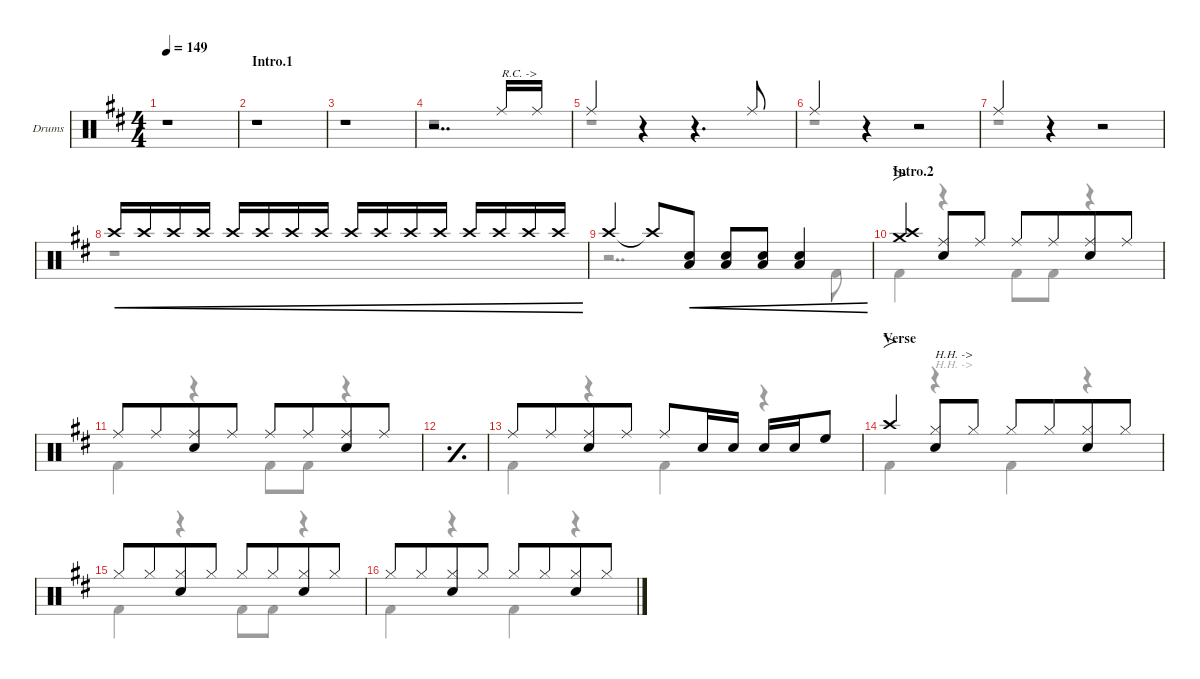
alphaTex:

\defaultSystemsLayout 4
\hideDynamics
\bracketExtendMode nobrackets
\firstSystemTrackNameOrientation horizontal
\track ("Drums" "Drums") {defaultSystemsLayout 4 instrument percussion}
\staff {score}
\articulation defaults
\voice
\ts (4 4)
\tempo 149
\clef neutral
\ks d
r.1{dy f beam Down} |
\beaming (8 4 4)
\section ("" "Intro.1")
\scale
0.266618 r.1{beam Up} |
\scale
0.244461 r.1{beam Up} |
\scale
0.24446 r.2{dd beam Up} "Ride (middle)"{acc forcenatural}.16{txt "R.C. ->" beam Up} "Ride (middle)"{acc forcenatural}.16{dy mp beam Up} |
\scale
0.244461 "Ride (middle)"{acc forcenatural}.4{dy f beam Up} r.4{beam Up} r.4{d beam Up} "Ride (middle)"{acc forcenatural}.8{dy mf beam Up} |
\scale
0.266618 "Ride (middle)"{acc forcenatural}.4{dy f beam Up} r.4{beam Up} r.2{beam Up} |
\scale
0.244461 "Ride (middle)"{acc forcenatural}.4{dy p beam Up} r.4{beam Up} r.2{beam Up} |
\scale
0.24446 "Crash high (hit)"{acc forcenatural}.16{cre dy pp beam Up} "Crash high (hit)"{acc forcenatural}.16{cre beam Up} "Crash high (hit)"{acc forcenatural}.16{cre beam Up} "Crash high (hit)"{acc forcenatural}.16{cre beam Up beam split} "Crash high (hit)"{acc forcenatural}.16{cre beam Up} "Crash high (hit)"{acc forcenatural}.16{cre beam Up} "Crash high (hit)"{acc forcenatural}.16{cre beam Up} "Crash high (hit)"{acc forcenatural}.16{cre beam Up beam split} "Crash high (hit)"{acc forcenatural}.16{cre dy p beam Up} "Crash high (hit)"{acc forcenatural}.16{cre dy pp beam Up} "Crash high (hit)"{acc forcenatural}.16{cre dy p beam Up} "Crash high (hit)"{acc forcenatural}.16{cre dy pp beam Up beam split} "Crash high (hit)"{acc forcenatural}.16{cre dy p beam Up} "Crash high (hit)"{acc forcenatural}.16{cre dy pp beam Up} "Crash high (hit)"{acc forcenatural}.16{cre dy p beam Up} "Crash high (hit)"{acc forcenatural}.16{cre dy pp beam Up} |
\scale
0.244461 "Crash high (hit)"{acc forcenatural}.4{dy p beam Up} "Crash high (hit)"{t acc forcenatural}.8{dy pp beam Up} ("Snare (hit) 2"{acc forcenatural} "Low Tom (hit)"{acc forcenatural}).8{cre dy p beam Up} ("Snare (hit) 2"{acc forcenatural} "Low Tom (hit)"{acc forcenatural}).8{cre dy mp beam Up} ("Snare (hit) 2"{acc forcenatural} "Low Tom (hit)"{acc forcenatural}).8{cre beam Up} ("Snare (hit) 2"{acc forcenatural} "Low Tom (hit)"{acc forcenatural}).4{cre dy mf beam Up} |
\section ("" "Intro.2")
\scale
0.266618 ("Crash high (hit)"{acc forcenatural} "Crash medium (hit)"{acc forcenatural}).4{fo dy f beam Up} ("Ride (middle)"{acc forcenatural} "Snare (hit) 2"{acc forcenatural}).8{beam Up} "Ride (middle)"{acc forcenatural}.8{dy mf beam Up} "Ride (middle)"{acc forcenatural}.8{dy f beam Up} "Ride (middle)"{acc forcenatural}.8{dy mf beam Up} ("Ride (middle)"{acc forcenatural} "Snare (hit) 2"{acc forcenatural}).8{dy f beam Up} "Ride (middle)"{acc forcenatural}.8{dy mf beam Up} |
\scale
0.244461 "Ride (middle)"{acc forcenatural}.8{dy f beam Up} "Ride (middle)"{acc forcenatural}.8{dy mf beam Up} ("Ride (middle)"{acc forcenatural} "Snare (hit) 2"{acc forcenatural}).8{dy f beam Up} "Ride (middle)"{acc forcenatural}.8{dy mf beam Up} "Ride (middle)"{acc forcenatural}.8{dy f beam Up} "Ride (middle)"{acc forcenatural}.8{dy mf beam Up} ("Ride (middle)"{acc forcenatural} "Snare (hit) 2"{acc forcenatural}).8{dy f beam Up} "Ride (middle)"{acc forcenatural}.8{dy mf beam Up} |
\simile simple
\scale
0.244461 |
\simile none
\scale
0.244461 "Ride (middle)"{acc forcenatural}.8{dy f beam Up} "Ride (middle)"{acc forcenatural}.8{dy mf beam Up} ("Ride (middle)"{acc forcenatural} "Snare (hit) 2"{acc forcenatural}).8{dy f beam Up} "Ride (middle)"{acc forcenatural}.8{dy mf beam Up} "Ride (middle)"{acc forcenatural}.8{dy f beam Up} "Snare (hit) 2"{acc forcenatural}.16{beam Up} "Snare (hit) 2"{acc forcenatural}.16{dy mf beam Up beam split} "Snare (hit) 2"{acc forcenatural}.16{dy f beam Up} "Snare (hit) 2"{acc forcenatural}.16{dy mf beam Up} "High Floor Tom (hit)"{acc forcenatural}.8{dy f beam Up} |
\section ("" "Verse")
\scale
0.266618 "Crash high (hit)"{acc forcenatural}.4{fo beam Up} ("Hi-Hat (closed)"{acc forcenatural} "Snare (hit) 2"{acc forcenatural}).8{txt "H.H. ->" beam Up} "Hi-Hat (closed)"{acc forcenatural}.8{dy mp beam Up} "Hi-Hat (closed)"{acc forcenatural}.8{dy f beam Up} "Hi-Hat (closed)"{acc forcenatural}.8{dy mp beam Up} ("Hi-Hat (closed)"{acc forcenatural} "Snare (hit) 2"{acc forcenatural}).8{dy f beam Up} "Hi-Hat (closed)"{acc forcenatural}.8{dy mp beam Up} |
\scale
0.244461 "Hi-Hat (closed)"{acc forcenatural}.8{dy f beam Up} "Hi-Hat (closed)"{acc forcenatural}.8{dy mp beam Up} ("Hi-Hat (closed)"{acc forcenatural} "Snare (hit) 2"{acc forcenatural}).8{dy f beam Up} "Hi-Hat (closed)"{acc forcenatural}.8{dy mp beam Up} "Hi-Hat (closed)"{acc forcenatural}.8{dy f beam Up} "Hi-Hat (closed)"{acc forcenatural}.8{dy mp beam Up} ("Hi-Hat (closed)"{acc forcenatural} "Snare (hit) 2"{acc forcenatural}).8{dy f beam Up} "Hi-Hat (closed)"{acc forcenatural}.8{dy mp beam Up} |
\scale
0.24446 "Hi-Hat (closed)"{acc forcenatural}.8{dy f beam Up} "Hi-Hat (closed)"{acc forcenatural}.8{dy mp beam Up} ("Hi-Hat (closed)"{acc forcenatural} "Snare (hit) 2"{acc forcenatural}).8{dy f beam Up} "Hi-Hat (closed)"{acc forcenatural}.8{dy mp beam Up} "Hi-Hat (closed)"{acc forcenatural}.8{dy f beam Up} "Hi-Hat (closed)"{acc forcenatural}.8{dy mp beam Up} ("Hi-Hat (closed)"{acc forcenatural} "Snare (hit) 2"{acc forcenatural}).8{dy f beam Up} "Hi-Hat (closed)"{acc forcenatural}.8{dy mp beam Up}
\voice
\clef neutral
\ottava regular
\simile none
\ks d
|
\scale
0.266618 r.1{beam Down} |
\scale
0.244461 r.1{beam Down} |
\scale
0.24446 r.1{beam Down} |
\scale
0.244461 r.1{beam Down} |
\scale
0.266618 r.1{beam Down} |
\scale
0.244461 r.1{beam Down} |
\scale
0.24446 r.1{beam Down} |
\scale
0.244461 r.2{dd beam Down} "Kick (hit) 2"{acc forcenatural}.8{beam Down} |
\scale
0.266618 "Kick (hit) 2"{acc forcenatural}.4{beam Down} r.4{beam Down} "Kick (hit) 2"{acc forcenatural}.8{beam Down} "Kick (hit) 2"{acc forcenatural}.8{beam Down} r.4{beam Down} |
\scale
0.244461 "Kick (hit) 2"{acc forcenatural}.4{beam Down} r.4{beam Down} "Kick (hit) 2"{acc forcenatural}.8{beam Down} "Kick (hit) 2"{acc forcenatural}.8{beam Down} r.4{beam Down} |
\simile simple
\scale
0.244461 |
\simile none
\scale
0.244461 "Kick (hit) 2"{acc forcenatural}.4{beam Down} r.4{beam Down} "Kick (hit) 2"{acc forcenatural}.4{beam Down} r.4{beam Down} |
\scale
0.266618 "Kick (hit) 2"{acc forcenatural}.4{beam Down} r.4{txt "H.H. ->" beam Down} "Kick (hit) 2"{acc forcenatural}.4{beam Down} r.4{beam Down} |
\scale
0.244461 "Kick (hit) 2"{acc forcenatural}.4{beam Down} r.4{beam Down} "Kick (hit) 2"{acc forcenatural}.8{beam Down} "Kick (hit) 2"{acc forcenatural}.8{beam Down} r.4{beam Down} |
\scale
0.24446 "Kick (hit) 2"{acc forcenatural}.4{beam Down} r.4{beam Down} "Kick (hit) 2"{acc forcenatural}.4{beam Down} r.4{beam Down}
